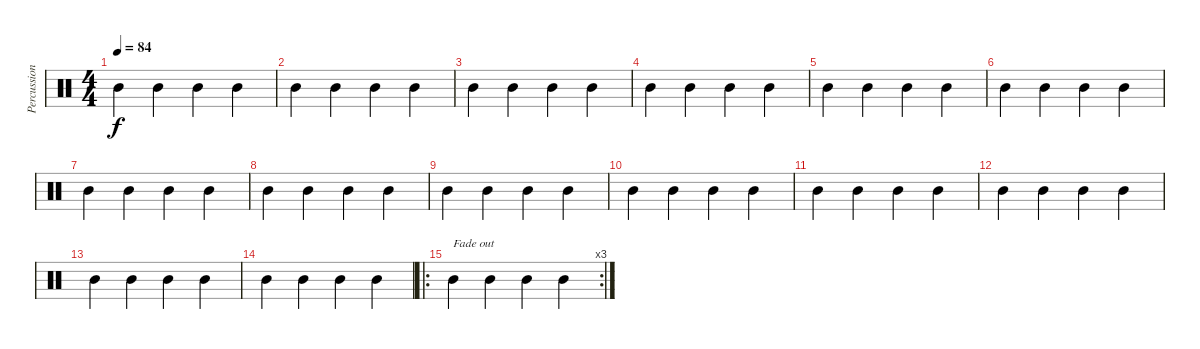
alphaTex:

\track ("Percussions" "Percussion") {instrument percussion}
\staff {score}
\articulation defaults
\ts (4 4)
\tempo 84
\clef neutral
\ks c "Mid Tom (hit)".4{dy f} "Mid Tom (hit)".4 "Mid Tom (hit)".4 "Mid Tom (hit)".4
|
"Mid Tom (hit)".4 "Mid Tom (hit)".4 "Mid Tom (hit)".4 "Mid Tom (hit)".4 |
"Mid Tom (hit)".4 "Mid Tom (hit)".4 "Mid Tom (hit)".4 "Mid Tom (hit)".4 |
"Mid Tom (hit)".4 "Mid Tom (hit)".4 "Mid Tom (hit)".4 "Mid Tom (hit)".4 |
"Mid Tom (hit)".4 "Mid Tom (hit)".4 "Mid Tom (hit)".4 "Mid Tom (hit)".4 |
"Mid Tom (hit)".4 "Mid Tom (hit)".4 "Mid Tom (hit)".4 "Mid Tom (hit)".4 |
"Mid Tom (hit)".4 "Mid Tom (hit)".4 "Mid Tom (hit)".4 "Mid Tom (hit)".4 |
"Mid Tom (hit)".4 "Mid Tom (hit)".4 "Mid Tom (hit)".4 "Mid Tom (hit)".4 |
"Mid Tom (hit)".4 "Mid Tom (hit)".4 "Mid Tom (hit)".4 "Mid Tom (hit)".4 |
"Mid Tom (hit)".4 "Mid Tom (hit)".4 "Mid Tom (hit)".4 "Mid Tom (hit)".4 |
"Mid Tom (hit)".4 "Mid Tom (hit)".4 "Mid Tom (hit)".4 "Mid Tom (hit)".4 |
"Mid Tom (hit)".4 "Mid Tom (hit)".4 "Mid Tom (hit)".4 "Mid Tom (hit)".4 |
"Mid Tom (hit)".4 "Mid Tom (hit)".4 "Mid Tom (hit)".4 "Mid Tom (hit)".4 |
"Mid Tom (hit)".4 "Mid Tom (hit)".4 "Mid Tom (hit)".4 "Mid Tom (hit)".4 |
\ro
\rc 3 "Mid Tom (hit)".4{txt "Fade out"} "Mid Tom (hit)".4 "Mid Tom (hit)".4 "Mid Tom (hit)".4
